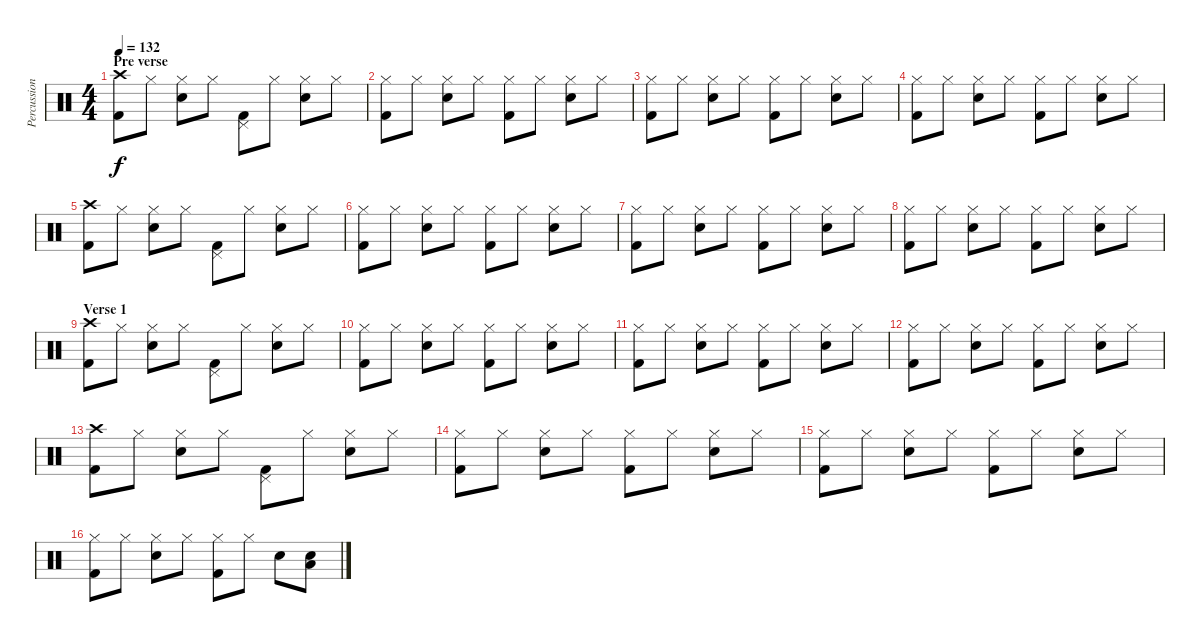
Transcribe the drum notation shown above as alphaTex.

\track ("Percussion" "Percussion") {instrument percussion}
\staff {score}
\articulation defaults
\ts (4 4)
\section ("" "Pre verse")
\tempo 132
\clef neutral
\ks c
("Crash high (hit)" "Kick (hit) 2").8{dy f} "Hi-Hat (closed)".8 ("Hi-Hat (closed)" "Snare (hit) 2").8 "Hi-Hat (closed)".8 ("Pedal Hi-Hat (hit)" "Kick (hit) 2").8 "Hi-Hat (closed)".8 ("Hi-Hat (closed)" "Snare (hit) 2").8 "Hi-Hat (closed)".8 |
("Hi-Hat (closed)" "Kick (hit) 2").8 "Hi-Hat (closed)".8 ("Hi-Hat (closed)" "Snare (hit) 2").8 "Hi-Hat (closed)".8 ("Hi-Hat (closed)" "Kick (hit) 2").8 "Hi-Hat (closed)".8 ("Hi-Hat (closed)" "Snare (hit) 2").8 "Hi-Hat (closed)".8 |
("Hi-Hat (closed)" "Kick (hit) 2").8 "Hi-Hat (closed)".8 ("Hi-Hat (closed)" "Snare (hit) 2").8 "Hi-Hat (closed)".8 ("Hi-Hat (closed)" "Kick (hit) 2").8 "Hi-Hat (closed)".8 ("Hi-Hat (closed)" "Snare (hit) 2").8 "Hi-Hat (closed)".8 |
("Hi-Hat (closed)" "Kick (hit) 2").8 "Hi-Hat (closed)".8 ("Hi-Hat (closed)" "Snare (hit) 2").8 "Hi-Hat (closed)".8 ("Hi-Hat (closed)" "Kick (hit) 2").8 "Hi-Hat (closed)".8 ("Hi-Hat (closed)" "Snare (hit) 2").8 "Hi-Hat (closed)".8 |
("Crash high (hit)" "Kick (hit) 2").8 "Hi-Hat (closed)".8 ("Hi-Hat (closed)" "Snare (hit) 2").8 "Hi-Hat (closed)".8 ("Pedal Hi-Hat (hit)" "Kick (hit) 2").8 "Hi-Hat (closed)".8 ("Hi-Hat (closed)" "Snare (hit) 2").8 "Hi-Hat (closed)".8 |
("Hi-Hat (closed)" "Kick (hit) 2").8 "Hi-Hat (closed)".8 ("Hi-Hat (closed)" "Snare (hit) 2").8 "Hi-Hat (closed)".8 ("Hi-Hat (closed)" "Kick (hit) 2").8 "Hi-Hat (closed)".8 ("Hi-Hat (closed)" "Snare (hit) 2").8 "Hi-Hat (closed)".8 |
("Hi-Hat (closed)" "Kick (hit) 2").8 "Hi-Hat (closed)".8 ("Hi-Hat (closed)" "Snare (hit) 2").8 "Hi-Hat (closed)".8 ("Hi-Hat (closed)" "Kick (hit) 2").8 "Hi-Hat (closed)".8 ("Hi-Hat (closed)" "Snare (hit) 2").8 "Hi-Hat (closed)".8 |
("Hi-Hat (closed)" "Kick (hit) 2").8 "Hi-Hat (closed)".8 ("Hi-Hat (closed)" "Snare (hit) 2").8 "Hi-Hat (closed)".8 ("Hi-Hat (closed)" "Kick (hit) 2").8 "Hi-Hat (closed)".8 ("Hi-Hat (closed)" "Snare (hit) 2").8 "Hi-Hat (closed)".8 |
\section ("" "Verse 1")
("Crash high (hit)" "Kick (hit) 2").8 "Hi-Hat (closed)".8 ("Hi-Hat (closed)" "Snare (hit) 2").8 "Hi-Hat (closed)".8 ("Pedal Hi-Hat (hit)" "Kick (hit) 2").8 "Hi-Hat (closed)".8 ("Hi-Hat (closed)" "Snare (hit) 2").8 "Hi-Hat (closed)".8 |
("Hi-Hat (closed)" "Kick (hit) 2").8 "Hi-Hat (closed)".8 ("Hi-Hat (closed)" "Snare (hit) 2").8 "Hi-Hat (closed)".8 ("Hi-Hat (closed)" "Kick (hit) 2").8 "Hi-Hat (closed)".8 ("Hi-Hat (closed)" "Snare (hit) 2").8 "Hi-Hat (closed)".8 |
("Hi-Hat (closed)" "Kick (hit) 2").8 "Hi-Hat (closed)".8 ("Hi-Hat (closed)" "Snare (hit) 2").8 "Hi-Hat (closed)".8 ("Hi-Hat (closed)" "Kick (hit) 2").8 "Hi-Hat (closed)".8 ("Hi-Hat (closed)" "Snare (hit) 2").8 "Hi-Hat (closed)".8 |
("Hi-Hat (closed)" "Kick (hit) 2").8 "Hi-Hat (closed)".8 ("Hi-Hat (closed)" "Snare (hit) 2").8 "Hi-Hat (closed)".8 ("Hi-Hat (closed)" "Kick (hit) 2").8 "Hi-Hat (closed)".8 ("Hi-Hat (closed)" "Snare (hit) 2").8 "Hi-Hat (closed)".8 |
("Crash high (hit)" "Kick (hit) 2").8 "Hi-Hat (closed)".8 ("Hi-Hat (closed)" "Snare (hit) 2").8 "Hi-Hat (closed)".8 ("Pedal Hi-Hat (hit)" "Kick (hit) 2").8 "Hi-Hat (closed)".8 ("Hi-Hat (closed)" "Snare (hit) 2").8 "Hi-Hat (closed)".8 |
("Hi-Hat (closed)" "Kick (hit) 2").8 "Hi-Hat (closed)".8 ("Hi-Hat (closed)" "Snare (hit) 2").8 "Hi-Hat (closed)".8 ("Hi-Hat (closed)" "Kick (hit) 2").8 "Hi-Hat (closed)".8 ("Hi-Hat (closed)" "Snare (hit) 2").8 "Hi-Hat (closed)".8 |
("Hi-Hat (closed)" "Kick (hit) 2").8 "Hi-Hat (closed)".8 ("Hi-Hat (closed)" "Snare (hit) 2").8 "Hi-Hat (closed)".8 ("Hi-Hat (closed)" "Kick (hit) 2").8 "Hi-Hat (closed)".8 ("Hi-Hat (closed)" "Snare (hit) 2").8 "Hi-Hat (closed)".8 |
("Hi-Hat (closed)" "Kick (hit) 2").8 "Hi-Hat (closed)".8 ("Hi-Hat (closed)" "Snare (hit) 2").8 "Hi-Hat (closed)".8 ("Hi-Hat (closed)" "Kick (hit) 2").8 "Hi-Hat (closed)".8 "Snare (hit) 2".8 ("Low Tom (hit)" "Snare (hit) 2").8
